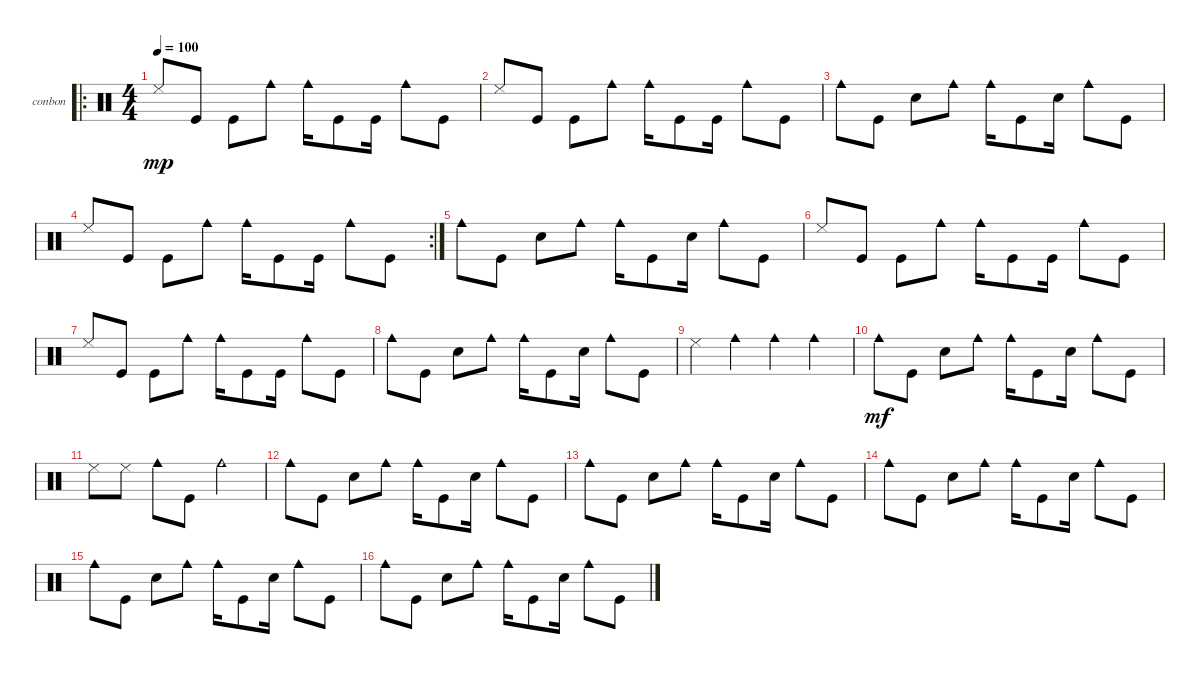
\defaultSystemsLayout 4
\bracketExtendMode groupsimilarinstruments
\firstSystemTrackNameOrientation horizontal
\otherSystemsTrackNameOrientation horizontal
\track ("Cyro Baptista" "conbon") {instrument percussion}
\staff {score}
\articulation defaults
\ro
\ts (4 4)
\tempo 100
\clef neutral
\ks c "Cowbell low (tip)".8{dy mp} "Kick (hit)".8 "Kick (hit)".8 "Cowbell medium (hit)".8 "Cowbell medium (hit)".16 "Kick (hit)".8 "Kick (hit)".16 "Cowbell medium (hit)".8 "Kick (hit)".8
|
"Cowbell low (tip)".8 "Kick (hit)".8 "Kick (hit)".8 "Cowbell medium (hit)".8 "Cowbell medium (hit)".16 "Kick (hit)".8 "Kick (hit)".16 "Cowbell medium (hit)".8 "Kick (hit)".8 |
"Cowbell medium (hit)".8 "Kick (hit)".8 "Snare (hit) 2".8 "Cowbell medium (hit)".8 "Cowbell medium (hit)".16 "Kick (hit)".8 "Snare (hit) 2".16 "Cowbell medium (hit)".8 "Kick (hit)".8 |
\rc 2 "Cowbell low (tip)".8 "Kick (hit)".8 "Kick (hit)".8 "Cowbell medium (hit)".8 "Cowbell medium (hit)".16 "Kick (hit)".8 "Kick (hit)".16 "Cowbell medium (hit)".8 "Kick (hit)".8
|
"Cowbell medium (hit)".8 "Kick (hit)".8 "Snare (hit) 2".8 "Cowbell medium (hit)".8 "Cowbell medium (hit)".16 "Kick (hit)".8 "Snare (hit) 2".16 "Cowbell medium (hit)".8 "Kick (hit)".8 |
"Cowbell low (tip)".8 "Kick (hit)".8 "Kick (hit)".8 "Cowbell medium (hit)".8 "Cowbell medium (hit)".16 "Kick (hit)".8 "Kick (hit)".16 "Cowbell medium (hit)".8 "Kick (hit)".8 |
"Cowbell low (tip)".8 "Kick (hit)".8 "Kick (hit)".8 "Cowbell medium (hit)".8 "Cowbell medium (hit)".16 "Kick (hit)".8 "Kick (hit)".16 "Cowbell medium (hit)".8 "Kick (hit)".8 |
"Cowbell medium (hit)".8 "Kick (hit)".8 "Snare (hit) 2".8 "Cowbell medium (hit)".8 "Cowbell medium (hit)".16 "Kick (hit)".8 "Snare (hit) 2".16 "Cowbell medium (hit)".8 "Kick (hit)".8 |
"Cowbell low (tip)".4 "Cowbell medium (hit)".4 "Cowbell medium (hit)".4 "Cowbell medium (hit)".4 |
"Cowbell medium (hit)".8{dy mf} "Kick (hit)".8 "Snare (hit) 2".8 "Cowbell medium (hit)".8 "Cowbell medium (hit)".16 "Kick (hit)".8 "Snare (hit) 2".16 "Cowbell medium (hit)".8 "Kick (hit)".8 |
"Cowbell low (tip)".8 "Cowbell low (tip)".8 "Cowbell medium (hit)".8 "Kick (hit)".8 "Cowbell medium (hit)".2 |
"Cowbell medium (hit)".8 "Kick (hit)".8 "Snare (hit) 2".8 "Cowbell medium (hit)".8 "Cowbell medium (hit)".16 "Kick (hit)".8 "Snare (hit) 2".16 "Cowbell medium (hit)".8 "Kick (hit)".8 |
"Cowbell medium (hit)".8 "Kick (hit)".8 "Snare (hit) 2".8 "Cowbell medium (hit)".8 "Cowbell medium (hit)".16 "Kick (hit)".8 "Snare (hit) 2".16 "Cowbell medium (hit)".8 "Kick (hit)".8 |
"Cowbell medium (hit)".8 "Kick (hit)".8 "Snare (hit) 2".8 "Cowbell medium (hit)".8 "Cowbell medium (hit)".16 "Kick (hit)".8 "Snare (hit) 2".16 "Cowbell medium (hit)".8 "Kick (hit)".8 |
"Cowbell medium (hit)".8 "Kick (hit)".8 "Snare (hit) 2".8 "Cowbell medium (hit)".8 "Cowbell medium (hit)".16 "Kick (hit)".8 "Snare (hit) 2".16 "Cowbell medium (hit)".8 "Kick (hit)".8 |
"Cowbell medium (hit)".8 "Kick (hit)".8 "Snare (hit) 2".8 "Cowbell medium (hit)".8 "Cowbell medium (hit)".16 "Kick (hit)".8 "Snare (hit) 2".16 "Cowbell medium (hit)".8 "Kick (hit)".8
